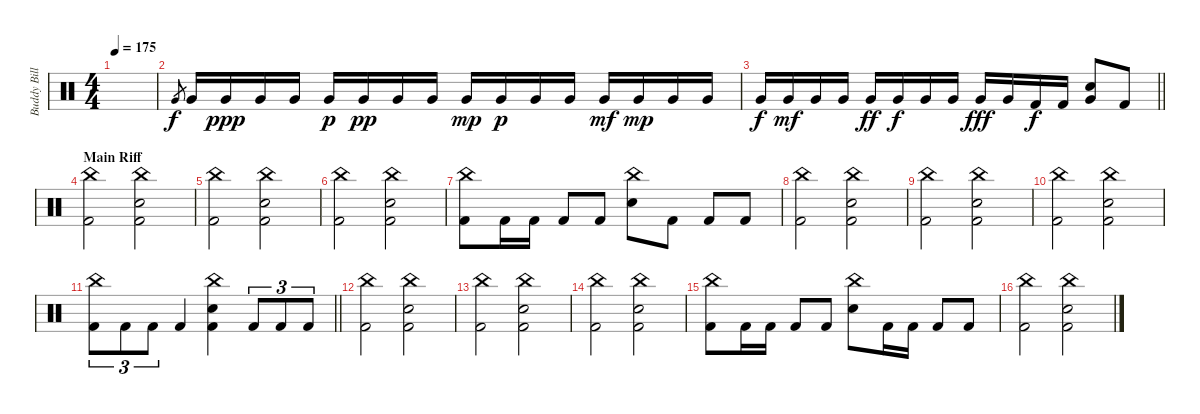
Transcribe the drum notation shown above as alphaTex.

\track ("Buddy Bill" "Buddy Bill") {instrument percussion}
\staff {score}
\articulation defaults
\ts (4 4)
\tempo 175
\clef neutral
\ks c
|
"Very Low Tom (hit)".8{gr} "Very Low Tom (hit)".16 "Very Low Tom (hit)".16{dy ppp} "Very Low Tom (hit)".16 "Very Low Tom (hit)".16 "Very Low Tom (hit)".16{dy p} "Very Low Tom (hit)".16{dy pp} "Very Low Tom (hit)".16 "Very Low Tom (hit)".16 "Very Low Tom (hit)".16{dy mp} "Very Low Tom (hit)".16{dy p} "Very Low Tom (hit)".16 "Very Low Tom (hit)".16 "Very Low Tom (hit)".16{dy mf} "Very Low Tom (hit)".16{dy mp} "Very Low Tom (hit)".16 "Very Low Tom (hit)".16 |
\barLineRight lightlight "Very Low Tom (hit)".16{dy f} "Very Low Tom (hit)".16{dy mf} "Very Low Tom (hit)".16 "Very Low Tom (hit)".16 "Very Low Tom (hit)".16{dy ff} "Very Low Tom (hit)".16{dy f} "Very Low Tom (hit)".16 "Very Low Tom (hit)".16 "Very Low Tom (hit)".16{dy fff} "Very Low Tom (hit)".16 "Kick (hit) 2".16{dy f} "Kick (hit) 2".16
("Snare (hit) 2" "Very Low Tom (hit)").8 "Kick (hit) 2".8 |
\section ("" "Main Riff")
("China (hit)" "Kick (hit) 2").2 ("China (hit)" "Snare (hit) 2" "Kick (hit) 2").2 |
("China (hit)" "Kick (hit) 2").2 ("China (hit)" "Snare (hit) 2" "Kick (hit) 2").2 |
("China (hit)" "Kick (hit) 2").2 ("China (hit)" "Snare (hit) 2" "Kick (hit) 2").2 |
("China (hit)" "Kick (hit) 2").8 "Kick (hit) 2".16 "Kick (hit) 2".16 "Kick (hit) 2".8 "Kick (hit) 2".8 ("China (hit)" "Snare (hit) 2").8 "Kick (hit) 2".8 "Kick (hit) 2".8 "Kick (hit) 2".8 |
("China (hit)" "Kick (hit) 2").2 ("China (hit)" "Snare (hit) 2" "Kick (hit) 2").2 |
("China (hit)" "Kick (hit) 2").2 ("China (hit)" "Snare (hit) 2" "Kick (hit) 2").2 |
("China (hit)" "Kick (hit) 2").2 ("China (hit)" "Snare (hit) 2" "Kick (hit) 2").2 |
\barLineRight lightlight
("China (hit)" "Kick (hit) 2").8{tu (3 2)} "Kick (hit) 2".8{tu (3 2)} "Kick (hit) 2".8{tu (3 2)} "Kick (hit) 2".4 ("China (hit)" "Snare (hit) 2" "Kick (hit) 2").4 "Kick (hit) 2".8{tu (3 2)} "Kick (hit) 2".8{tu (3 2)} "Kick (hit) 2".8{tu (3 2)} |
\section ("" "")
("China (hit)" "Kick (hit) 2").2 ("China (hit)" "Snare (hit) 2" "Kick (hit) 2").2 |
("China (hit)" "Kick (hit) 2").2 ("China (hit)" "Snare (hit) 2" "Kick (hit) 2").2 |
("China (hit)" "Kick (hit) 2").2 ("China (hit)" "Snare (hit) 2" "Kick (hit) 2").2 |
("China (hit)" "Kick (hit) 2").8 "Kick (hit) 2".16 "Kick (hit) 2".16 "Kick (hit) 2".8 "Kick (hit) 2".8 ("China (hit)" "Snare (hit) 2").8 "Kick (hit) 2".16 "Kick (hit) 2".16 "Kick (hit) 2".8 "Kick (hit) 2".8 |
("China (hit)" "Kick (hit) 2").2 ("China (hit)" "Snare (hit) 2" "Kick (hit) 2").2
